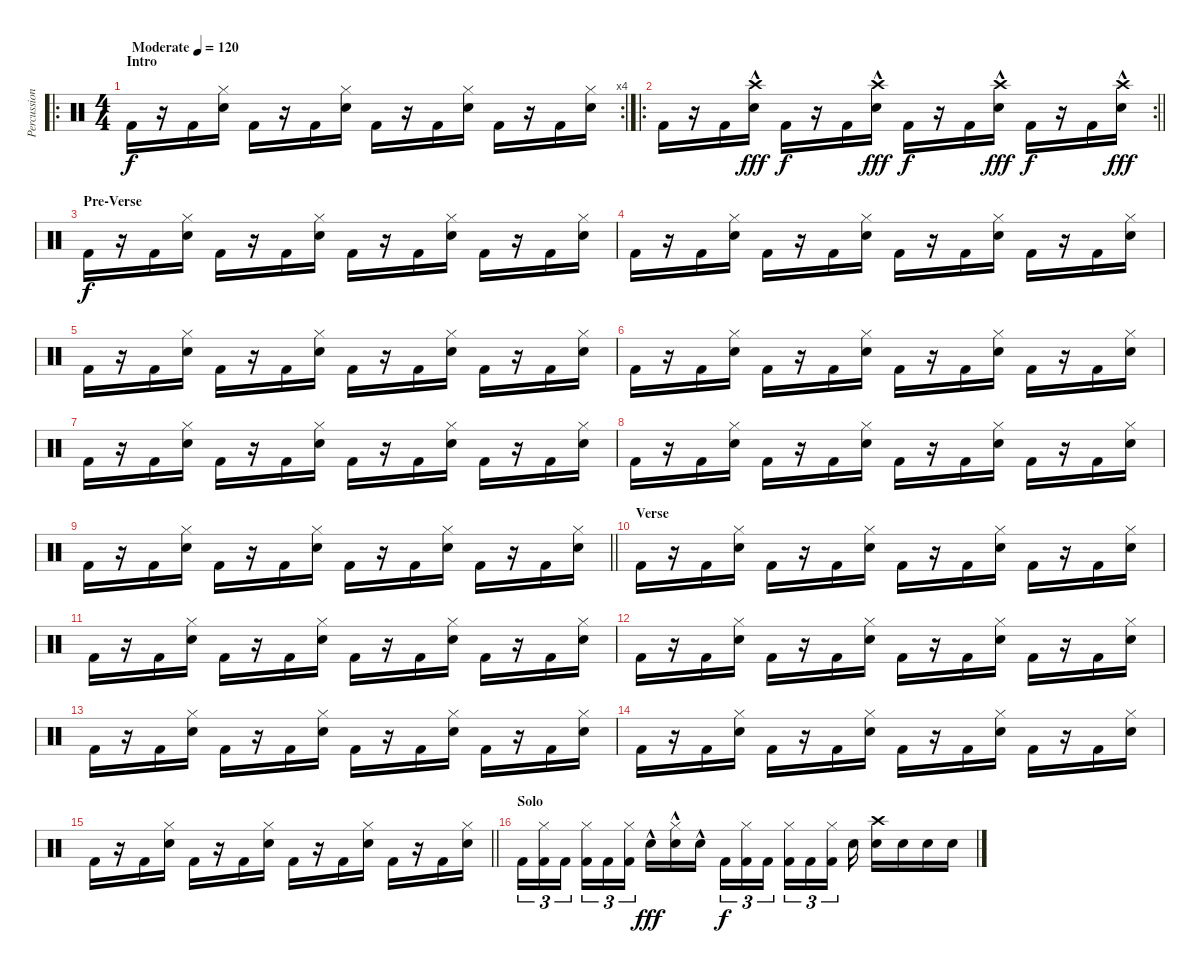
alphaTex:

\track ("Percussion" "Percussion") {instrument percussion}
\staff {score}
\articulation defaults
\ro
\rc 4
\ts (4 4)
\section ("" "Intro")
\tempo (120 "Moderate")
\clef neutral
\ks c "Kick (hit) 2".16{dy f}
r.16 "Kick (hit) 2".16 ("Hi-Hat (closed)" "Electric Snare (hit)").16 "Kick (hit) 2".16 r.16 "Kick (hit) 2".16 ("Hi-Hat (closed)" "Electric Snare (hit)").16 "Kick (hit) 2".16 r.16 "Kick (hit) 2".16 ("Hi-Hat (closed)" "Electric Snare (hit)").16 "Kick (hit) 2".16 r.16 "Kick (hit) 2".16 ("Hi-Hat (closed)" "Electric Snare (hit)").16 |
\ro
\rc 2
\barLineRight lightlight "Kick (hit) 2".16
r.16 "Kick (hit) 2".16 ("Crash high (hit)"{hac} "Electric Snare (hit)").16{dy fff} "Kick (hit) 2".16{dy f} r.16 "Kick (hit) 2".16 ("Crash high (hit)"{hac} "Electric Snare (hit)").16{dy fff} "Kick (hit) 2".16{dy f} r.16 "Kick (hit) 2".16 ("Crash high (hit)"{hac} "Electric Snare (hit)").16{dy fff} "Kick (hit) 2".16{dy f} r.16 "Kick (hit) 2".16 ("Crash high (hit)"{hac} "Electric Snare (hit)").16{dy fff} |
\section ("" "Pre-Verse")
"Kick (hit) 2".16{dy f} r.16 "Kick (hit) 2".16 ("Hi-Hat (closed)" "Electric Snare (hit)").16 "Kick (hit) 2".16 r.16 "Kick (hit) 2".16 ("Hi-Hat (closed)" "Electric Snare (hit)").16 "Kick (hit) 2".16 r.16 "Kick (hit) 2".16 ("Hi-Hat (closed)" "Electric Snare (hit)").16 "Kick (hit) 2".16 r.16 "Kick (hit) 2".16 ("Hi-Hat (closed)" "Electric Snare (hit)").16 |
"Kick (hit) 2".16 r.16 "Kick (hit) 2".16 ("Hi-Hat (closed)" "Electric Snare (hit)").16 "Kick (hit) 2".16 r.16 "Kick (hit) 2".16 ("Hi-Hat (closed)" "Electric Snare (hit)").16 "Kick (hit) 2".16 r.16 "Kick (hit) 2".16 ("Hi-Hat (closed)" "Electric Snare (hit)").16 "Kick (hit) 2".16 r.16 "Kick (hit) 2".16 ("Hi-Hat (closed)" "Electric Snare (hit)").16 |
"Kick (hit) 2".16 r.16 "Kick (hit) 2".16 ("Hi-Hat (closed)" "Electric Snare (hit)").16 "Kick (hit) 2".16 r.16 "Kick (hit) 2".16 ("Hi-Hat (closed)" "Electric Snare (hit)").16 "Kick (hit) 2".16 r.16 "Kick (hit) 2".16 ("Hi-Hat (closed)" "Electric Snare (hit)").16 "Kick (hit) 2".16 r.16 "Kick (hit) 2".16 ("Hi-Hat (closed)" "Electric Snare (hit)").16 |
"Kick (hit) 2".16 r.16 "Kick (hit) 2".16 ("Hi-Hat (closed)" "Electric Snare (hit)").16 "Kick (hit) 2".16 r.16 "Kick (hit) 2".16 ("Hi-Hat (closed)" "Electric Snare (hit)").16 "Kick (hit) 2".16 r.16 "Kick (hit) 2".16 ("Hi-Hat (closed)" "Electric Snare (hit)").16 "Kick (hit) 2".16 r.16 "Kick (hit) 2".16 ("Hi-Hat (closed)" "Electric Snare (hit)").16 |
"Kick (hit) 2".16 r.16 "Kick (hit) 2".16 ("Hi-Hat (closed)" "Electric Snare (hit)").16 "Kick (hit) 2".16 r.16 "Kick (hit) 2".16 ("Hi-Hat (closed)" "Electric Snare (hit)").16 "Kick (hit) 2".16 r.16 "Kick (hit) 2".16 ("Hi-Hat (closed)" "Electric Snare (hit)").16 "Kick (hit) 2".16 r.16 "Kick (hit) 2".16 ("Hi-Hat (closed)" "Electric Snare (hit)").16 |
"Kick (hit) 2".16 r.16 "Kick (hit) 2".16 ("Hi-Hat (closed)" "Electric Snare (hit)").16 "Kick (hit) 2".16 r.16 "Kick (hit) 2".16 ("Hi-Hat (closed)" "Electric Snare (hit)").16 "Kick (hit) 2".16 r.16 "Kick (hit) 2".16 ("Hi-Hat (closed)" "Electric Snare (hit)").16 "Kick (hit) 2".16 r.16 "Kick (hit) 2".16 ("Hi-Hat (closed)" "Electric Snare (hit)").16 |
\barLineRight lightlight "Kick (hit) 2".16
r.16 "Kick (hit) 2".16 ("Hi-Hat (closed)" "Electric Snare (hit)").16 "Kick (hit) 2".16 r.16 "Kick (hit) 2".16 ("Hi-Hat (closed)" "Electric Snare (hit)").16 "Kick (hit) 2".16 r.16 "Kick (hit) 2".16 ("Hi-Hat (closed)" "Electric Snare (hit)").16 "Kick (hit) 2".16 r.16 "Kick (hit) 2".16 ("Hi-Hat (closed)" "Electric Snare (hit)").16 |
\section ("" "Verse")
"Kick (hit) 2".16 r.16 "Kick (hit) 2".16 ("Hi-Hat (closed)" "Electric Snare (hit)").16 "Kick (hit) 2".16 r.16 "Kick (hit) 2".16 ("Hi-Hat (closed)" "Electric Snare (hit)").16 "Kick (hit) 2".16 r.16 "Kick (hit) 2".16 ("Hi-Hat (closed)" "Electric Snare (hit)").16 "Kick (hit) 2".16 r.16 "Kick (hit) 2".16 ("Hi-Hat (closed)" "Electric Snare (hit)").16 |
"Kick (hit) 2".16 r.16 "Kick (hit) 2".16 ("Hi-Hat (closed)" "Electric Snare (hit)").16 "Kick (hit) 2".16 r.16 "Kick (hit) 2".16 ("Hi-Hat (closed)" "Electric Snare (hit)").16 "Kick (hit) 2".16 r.16 "Kick (hit) 2".16 ("Hi-Hat (closed)" "Electric Snare (hit)").16 "Kick (hit) 2".16 r.16 "Kick (hit) 2".16 ("Hi-Hat (closed)" "Electric Snare (hit)").16 |
"Kick (hit) 2".16 r.16 "Kick (hit) 2".16 ("Hi-Hat (closed)" "Electric Snare (hit)").16 "Kick (hit) 2".16 r.16 "Kick (hit) 2".16 ("Hi-Hat (closed)" "Electric Snare (hit)").16 "Kick (hit) 2".16 r.16 "Kick (hit) 2".16 ("Hi-Hat (closed)" "Electric Snare (hit)").16 "Kick (hit) 2".16 r.16 "Kick (hit) 2".16 ("Hi-Hat (closed)" "Electric Snare (hit)").16 |
"Kick (hit) 2".16 r.16 "Kick (hit) 2".16 ("Hi-Hat (closed)" "Electric Snare (hit)").16 "Kick (hit) 2".16 r.16 "Kick (hit) 2".16 ("Hi-Hat (closed)" "Electric Snare (hit)").16 "Kick (hit) 2".16 r.16 "Kick (hit) 2".16 ("Hi-Hat (closed)" "Electric Snare (hit)").16 "Kick (hit) 2".16 r.16 "Kick (hit) 2".16 ("Hi-Hat (closed)" "Electric Snare (hit)").16 |
"Kick (hit) 2".16 r.16 "Kick (hit) 2".16 ("Hi-Hat (closed)" "Electric Snare (hit)").16 "Kick (hit) 2".16 r.16 "Kick (hit) 2".16 ("Hi-Hat (closed)" "Electric Snare (hit)").16 "Kick (hit) 2".16 r.16 "Kick (hit) 2".16 ("Hi-Hat (closed)" "Electric Snare (hit)").16 "Kick (hit) 2".16 r.16 "Kick (hit) 2".16 ("Hi-Hat (closed)" "Electric Snare (hit)").16 |
\barLineRight lightlight "Kick (hit) 2".16
r.16 "Kick (hit) 2".16 ("Hi-Hat (closed)" "Electric Snare (hit)").16 "Kick (hit) 2".16 r.16 "Kick (hit) 2".16 ("Hi-Hat (closed)" "Electric Snare (hit)").16 "Kick (hit) 2".16 r.16 "Kick (hit) 2".16 ("Hi-Hat (closed)" "Electric Snare (hit)").16 "Kick (hit) 2".16 r.16 "Kick (hit) 2".16 ("Hi-Hat (closed)" "Electric Snare (hit)").16 |
\section ("" "Solo")
"Kick (hit) 2".16{tu (3 2)} ("Hi-Hat (closed)" "Kick (hit) 2").16{tu (3 2)} "Kick (hit) 2".16{tu (3 2) beam splitsecondary} ("Hi-Hat (closed)" "Kick (hit) 2").16{tu (3 2)} "Kick (hit) 2".16{tu (3 2)} ("Hi-Hat (closed)" "Kick (hit) 2").16{tu (3 2)} "Electric Snare (hit)"{hac}.16{dy fff} ("Hi-Hat (closed)"{hac} "Electric Snare (hit)"{hac}).16 "Electric Snare (hit)"{hac}.16{beam splitsecondary} "Kick (hit) 2".16{tu (3 2) dy f} ("Hi-Hat (closed)" "Kick (hit) 2").16{tu (3 2)} "Kick (hit) 2".16{tu (3 2) beam splitsecondary} ("Hi-Hat (closed)" "Kick (hit) 2").16{tu (3 2)} "Kick (hit) 2".16{tu (3 2)} ("Hi-Hat (closed)" "Kick (hit) 2").16{tu (3 2) beam splitsecondary} "Electric Snare (hit)".16 ("Electric Snare (hit)" "Crash high (hit)").16 "Electric Snare (hit)".16 "Electric Snare (hit)".16 "Electric Snare (hit)".16
